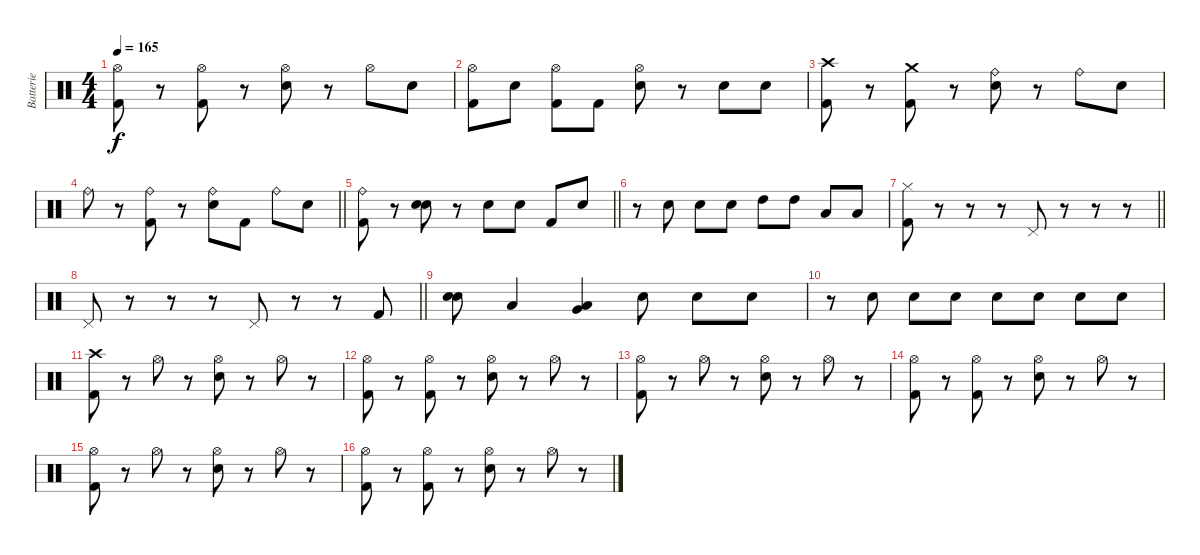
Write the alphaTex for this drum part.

\track ("Batterie" "Batterie") {instrument percussion}
\staff {score}
\articulation defaults
\ts (4 4)
\tempo 165
\clef neutral
\ks c
("Hi-Hat (open)" "Kick (hit) 2").8{dy f} r.8 ("Hi-Hat (open)" "Kick (hit) 2").8 r.8 ("Hi-Hat (open)" "Electric Snare (hit)").8 r.8 "Hi-Hat (open)".8 "Electric Snare (hit)".8 |
("Hi-Hat (open)" "Kick (hit) 2").8 "Electric Snare (hit)".8 ("Hi-Hat (open)" "Kick (hit) 2").8 "Kick (hit) 2".8 ("Hi-Hat (open)" "Electric Snare (hit)").8 r.8 "Electric Snare (hit)".8 "Electric Snare (hit)".8 |
("Crash high (hit)" "Kick (hit) 2").8 r.8 ("Crash medium (hit)" "Kick (hit) 2").8 r.8 ("Ride (bell)" "Electric Snare (hit)").8 r.8 "Ride (bell)".8 "Electric Snare (hit)".8 |
\barLineRight lightlight "Ride (bell)".8
r.8 ("Ride (bell)" "Kick (hit) 2").8 r.8 ("Ride (bell)" "Electric Snare (hit)").8 "Kick (hit) 2".8 "Ride (bell)".8 "Electric Snare (hit)".8 |
\barLineRight lightlight
("Ride (bell)" "Kick (hit) 2").8 r.8 ("Electric Snare (hit)" "Electric Snare (hit)").8{bu 120} r.8 "Electric Snare (hit)".8 "Electric Snare (hit)".8 "Kick (hit) 2".8 "Electric Snare (hit)".8 |
r.8 "Electric Snare (hit)".8 "Electric Snare (hit)".8 "Electric Snare (hit)".8 "High Tom (hit)".8 "High Tom (hit)".8 "Low Tom (hit)".8 "Low Tom (hit)".8 |
\barLineRight lightlight
("Hi-Hat (closed)" "Kick (hit) 2").8 r.8 r.8 r.8 "Pedal Hi-Hat (hit)".8 r.8 r.8 r.8 |
\barLineRight lightlight "Pedal Hi-Hat (hit)".8
r.8 r.8 r.8 "Pedal Hi-Hat (hit)".8 r.8 r.8 "Kick (hit) 2".8 |
("Electric Snare (hit)" "Electric Snare (hit)").8{bu 120} "Low Tom (hit)".4 ("Low Tom (hit)" "Very Low Tom (hit)").4{bu 120} "Electric Snare (hit)".8 "Electric Snare (hit)".8 "Electric Snare (hit)".8 |
r.8 "Electric Snare (hit)".8 "Electric Snare (hit)".8 "Electric Snare (hit)".8 "Electric Snare (hit)".8 "Electric Snare (hit)".8 "Electric Snare (hit)".8 "Electric Snare (hit)".8 |
("Crash high (hit)" "Kick (hit) 2").8 r.8 "Hi-Hat (open)".8 r.8 ("Hi-Hat (open)" "Electric Snare (hit)").8 r.8 "Hi-Hat (open)".8 r.8 |
("Hi-Hat (open)" "Kick (hit) 2").8 r.8 ("Hi-Hat (open)" "Kick (hit) 2").8 r.8 ("Hi-Hat (open)" "Electric Snare (hit)").8 r.8 "Hi-Hat (open)".8 r.8 |
("Hi-Hat (open)" "Kick (hit) 2").8 r.8 "Hi-Hat (open)".8 r.8 ("Hi-Hat (open)" "Electric Snare (hit)").8 r.8 "Hi-Hat (open)".8 r.8 |
("Hi-Hat (open)" "Kick (hit) 2").8 r.8 ("Hi-Hat (open)" "Kick (hit) 2").8 r.8 ("Hi-Hat (open)" "Electric Snare (hit)").8 r.8 "Hi-Hat (open)".8 r.8 |
("Hi-Hat (open)" "Kick (hit) 2").8 r.8 "Hi-Hat (open)".8 r.8 ("Hi-Hat (open)" "Electric Snare (hit)").8 r.8 "Hi-Hat (open)".8 r.8 |
("Hi-Hat (open)" "Kick (hit) 2").8 r.8 ("Hi-Hat (open)" "Kick (hit) 2").8 r.8 ("Hi-Hat (open)" "Electric Snare (hit)").8 r.8 "Hi-Hat (open)".8 r.8
